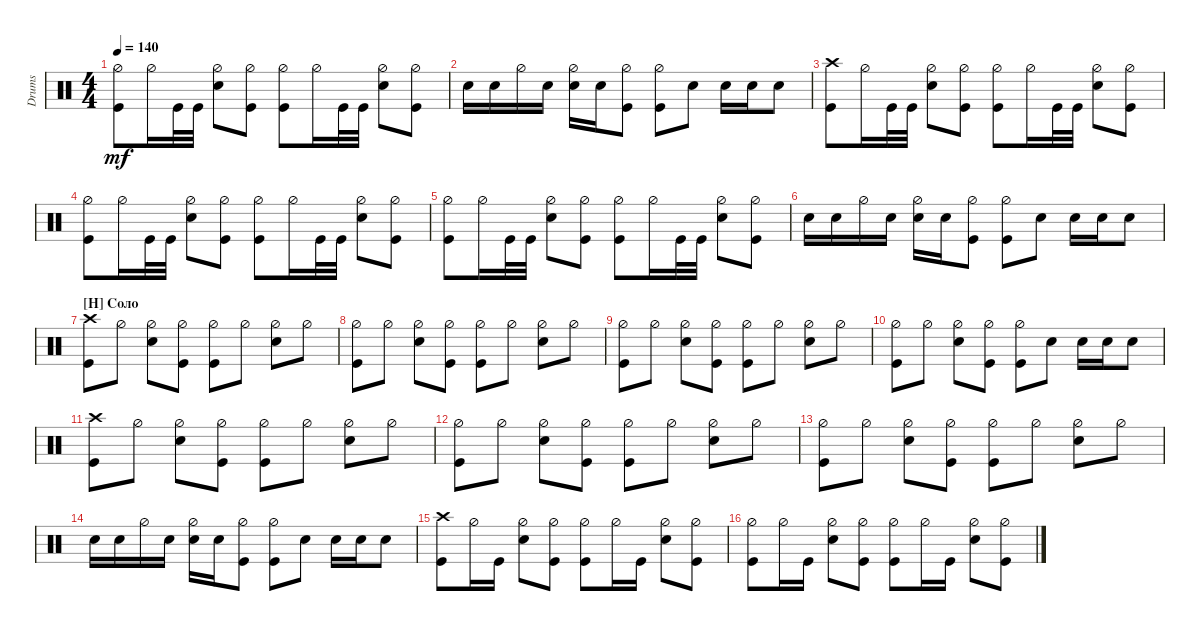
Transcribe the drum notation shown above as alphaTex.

\track ("Drumkit" "Drums") {instrument percussion}
\staff {score}
\articulation defaults
\ts (4 4)
\tempo 140
\clef neutral
\ks c
("Kick (hit)" "Hi-Hat (half)").8{dy mf} "Hi-Hat (half)".16 "Kick (hit)".32 "Kick (hit)".32 ("Hi-Hat (half)" "Snare (hit) 2").8 ("Kick (hit)" "Hi-Hat (half)").8 ("Kick (hit)" "Hi-Hat (half)").8 "Hi-Hat (half)".16 "Kick (hit)".32 "Kick (hit)".32 ("Hi-Hat (half)" "Snare (hit) 2").8 ("Hi-Hat (half)" "Kick (hit)").8 |
"Snare (hit) 2".16 "Snare (hit) 2".16 "Hi-Hat (half)".16 "Snare (hit) 2".16 ("Hi-Hat (half)" "Snare (hit) 2").16 "Snare (hit) 2".16 ("Kick (hit)" "Hi-Hat (half)").8 ("Kick (hit)" "Hi-Hat (half)").8 "Snare (hit) 2".8 "Snare (hit) 2".16 "Snare (hit) 2".16 "Snare (hit) 2".8 |
("Kick (hit)" "Crash high (hit)").8 "Hi-Hat (half)".16 "Kick (hit)".32 "Kick (hit)".32 ("Hi-Hat (half)" "Snare (hit) 2").8 ("Kick (hit)" "Hi-Hat (half)").8 ("Kick (hit)" "Hi-Hat (half)").8 "Hi-Hat (half)".16 "Kick (hit)".32 "Kick (hit)".32 ("Hi-Hat (half)" "Snare (hit) 2").8 ("Hi-Hat (half)" "Kick (hit)").8 |
("Kick (hit)" "Hi-Hat (half)").8 "Hi-Hat (half)".16 "Kick (hit)".32 "Kick (hit)".32 ("Hi-Hat (half)" "Snare (hit) 2").8 ("Kick (hit)" "Hi-Hat (half)").8 ("Kick (hit)" "Hi-Hat (half)").8 "Hi-Hat (half)".16 "Kick (hit)".32 "Kick (hit)".32 ("Hi-Hat (half)" "Snare (hit) 2").8 ("Hi-Hat (half)" "Kick (hit)").8 |
("Kick (hit)" "Hi-Hat (half)").8 "Hi-Hat (half)".16 "Kick (hit)".32 "Kick (hit)".32 ("Hi-Hat (half)" "Snare (hit) 2").8 ("Kick (hit)" "Hi-Hat (half)").8 ("Kick (hit)" "Hi-Hat (half)").8 "Hi-Hat (half)".16 "Kick (hit)".32 "Kick (hit)".32 ("Hi-Hat (half)" "Snare (hit) 2").8 ("Hi-Hat (half)" "Kick (hit)").8 |
"Snare (hit) 2".16 "Snare (hit) 2".16 "Hi-Hat (half)".16 "Snare (hit) 2".16 ("Hi-Hat (half)" "Snare (hit) 2").16 "Snare (hit) 2".16 ("Kick (hit)" "Hi-Hat (half)").8 ("Kick (hit)" "Hi-Hat (half)").8 "Snare (hit) 2".8 "Snare (hit) 2".16 "Snare (hit) 2".16 "Snare (hit) 2".8 |
\section ("H" "Соло")
("Kick (hit)" "Crash high (hit)").8 "Hi-Hat (half)".8 ("Snare (hit) 2" "Hi-Hat (half)").8 ("Kick (hit)" "Hi-Hat (half)").8 ("Kick (hit)" "Hi-Hat (half)").8 "Hi-Hat (half)".8 ("Snare (hit) 2" "Hi-Hat (half)").8 "Hi-Hat (half)".8 |
("Kick (hit)" "Hi-Hat (half)").8 "Hi-Hat (half)".8 ("Snare (hit) 2" "Hi-Hat (half)").8 ("Kick (hit)" "Hi-Hat (half)").8 ("Kick (hit)" "Hi-Hat (half)").8 "Hi-Hat (half)".8 ("Snare (hit) 2" "Hi-Hat (half)").8 "Hi-Hat (half)".8 |
("Kick (hit)" "Hi-Hat (half)").8 "Hi-Hat (half)".8 ("Snare (hit) 2" "Hi-Hat (half)").8 ("Kick (hit)" "Hi-Hat (half)").8 ("Kick (hit)" "Hi-Hat (half)").8 "Hi-Hat (half)".8 ("Snare (hit) 2" "Hi-Hat (half)").8 "Hi-Hat (half)".8 |
("Kick (hit)" "Hi-Hat (half)").8 "Hi-Hat (half)".8 ("Snare (hit) 2" "Hi-Hat (half)").8 ("Kick (hit)" "Hi-Hat (half)").8 ("Kick (hit)" "Hi-Hat (half)").8 "Snare (hit) 2".8 "Snare (hit) 2".16 "Snare (hit) 2".16 "Snare (hit) 2".8 |
("Kick (hit)" "Crash high (hit)").8 "Hi-Hat (half)".8 ("Snare (hit) 2" "Hi-Hat (half)").8 ("Kick (hit)" "Hi-Hat (half)").8 ("Kick (hit)" "Hi-Hat (half)").8 "Hi-Hat (half)".8 ("Snare (hit) 2" "Hi-Hat (half)").8 "Hi-Hat (half)".8 |
("Kick (hit)" "Hi-Hat (half)").8 "Hi-Hat (half)".8 ("Snare (hit) 2" "Hi-Hat (half)").8 ("Kick (hit)" "Hi-Hat (half)").8 ("Kick (hit)" "Hi-Hat (half)").8 "Hi-Hat (half)".8 ("Snare (hit) 2" "Hi-Hat (half)").8 "Hi-Hat (half)".8 |
("Kick (hit)" "Hi-Hat (half)").8 "Hi-Hat (half)".8 ("Snare (hit) 2" "Hi-Hat (half)").8 ("Kick (hit)" "Hi-Hat (half)").8 ("Kick (hit)" "Hi-Hat (half)").8 "Hi-Hat (half)".8 ("Snare (hit) 2" "Hi-Hat (half)").8 "Hi-Hat (half)".8 |
"Snare (hit) 2".16 "Snare (hit) 2".16 "Hi-Hat (half)".16 "Snare (hit) 2".16 ("Hi-Hat (half)" "Snare (hit) 2").16 "Snare (hit) 2".16 ("Kick (hit)" "Hi-Hat (half)").8 ("Kick (hit)" "Hi-Hat (half)").8 "Snare (hit) 2".8 "Snare (hit) 2".16 "Snare (hit) 2".16 "Snare (hit) 2".8 |
("Kick (hit)" "Crash high (hit)").8 "Hi-Hat (half)".16 "Kick (hit)".16 ("Snare (hit) 2" "Hi-Hat (half)").8 ("Kick (hit)" "Hi-Hat (half)").8 ("Kick (hit)" "Hi-Hat (half)").8 "Hi-Hat (half)".16 "Kick (hit)".16 ("Hi-Hat (half)" "Snare (hit) 2").8 ("Hi-Hat (half)" "Kick (hit)").8 |
("Kick (hit)" "Hi-Hat (half)").8 "Hi-Hat (half)".16 "Kick (hit)".16 ("Snare (hit) 2" "Hi-Hat (half)").8 ("Kick (hit)" "Hi-Hat (half)").8 ("Kick (hit)" "Hi-Hat (half)").8 "Hi-Hat (half)".16 "Kick (hit)".16 ("Hi-Hat (half)" "Snare (hit) 2").8 ("Hi-Hat (half)" "Kick (hit)").8
